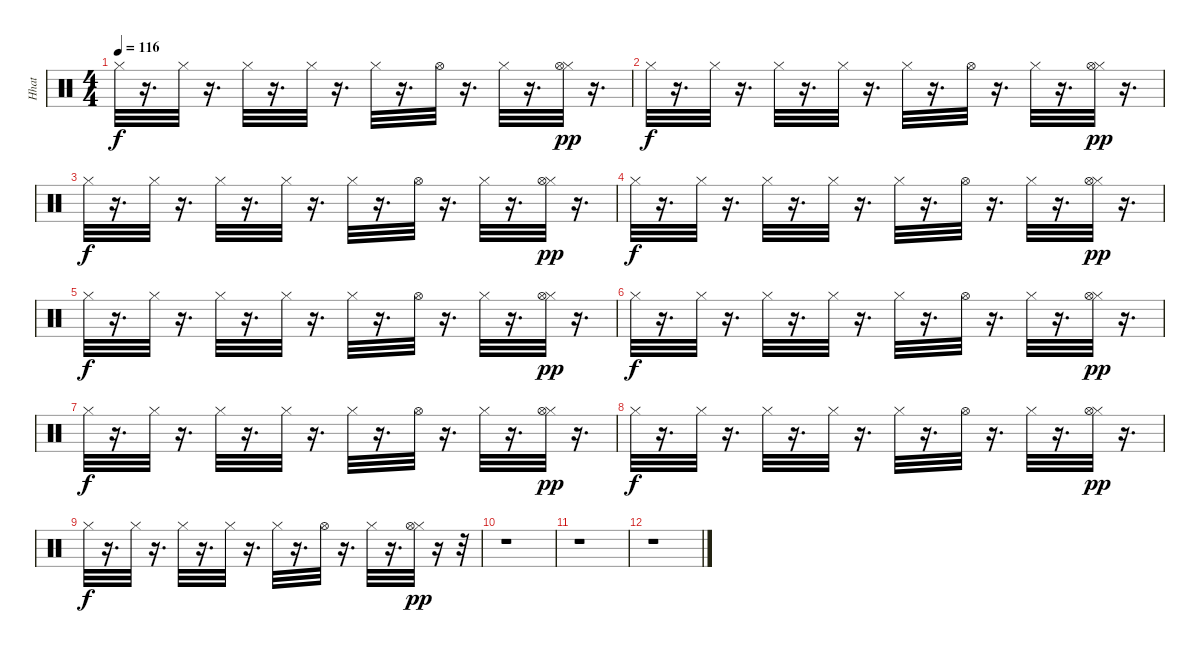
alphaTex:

\track ("Hhat" "Hhat") {instrument percussion}
\staff {score}
\articulation defaults
\ts (4 4)
\tempo 116
\clef neutral
\ks c "Hi-Hat (closed)".32{dy f}
r.16{d} "Hi-Hat (closed)".32 r.16{d} "Hi-Hat (closed)".32 r.16{d} "Hi-Hat (closed)".32 r.16{d} "Hi-Hat (closed)".32 r.16{d} "Hi-Hat (open)".32 r.16{d} "Hi-Hat (closed)".32 r.16{d} ("Hi-Hat (closed)" "Hi-Hat (open)").32{dy pp} r.16{d} |
"Hi-Hat (closed)".32{dy f} r.16{d} "Hi-Hat (closed)".32 r.16{d} "Hi-Hat (closed)".32 r.16{d} "Hi-Hat (closed)".32 r.16{d} "Hi-Hat (closed)".32 r.16{d} "Hi-Hat (open)".32 r.16{d} "Hi-Hat (closed)".32 r.16{d} ("Hi-Hat (closed)" "Hi-Hat (open)").32{dy pp} r.16{d} |
"Hi-Hat (closed)".32{dy f} r.16{d} "Hi-Hat (closed)".32 r.16{d} "Hi-Hat (closed)".32 r.16{d} "Hi-Hat (closed)".32 r.16{d} "Hi-Hat (closed)".32 r.16{d} "Hi-Hat (open)".32 r.16{d} "Hi-Hat (closed)".32 r.16{d} ("Hi-Hat (closed)" "Hi-Hat (open)").32{dy pp} r.16{d} |
"Hi-Hat (closed)".32{dy f} r.16{d} "Hi-Hat (closed)".32 r.16{d} "Hi-Hat (closed)".32 r.16{d} "Hi-Hat (closed)".32 r.16{d} "Hi-Hat (closed)".32 r.16{d} "Hi-Hat (open)".32 r.16{d} "Hi-Hat (closed)".32 r.16{d} ("Hi-Hat (closed)" "Hi-Hat (open)").32{dy pp} r.16{d} |
"Hi-Hat (closed)".32{dy f} r.16{d} "Hi-Hat (closed)".32 r.16{d} "Hi-Hat (closed)".32 r.16{d} "Hi-Hat (closed)".32 r.16{d} "Hi-Hat (closed)".32 r.16{d} "Hi-Hat (open)".32 r.16{d} "Hi-Hat (closed)".32 r.16{d} ("Hi-Hat (closed)" "Hi-Hat (open)").32{dy pp} r.16{d} |
"Hi-Hat (closed)".32{dy f} r.16{d} "Hi-Hat (closed)".32 r.16{d} "Hi-Hat (closed)".32 r.16{d} "Hi-Hat (closed)".32 r.16{d} "Hi-Hat (closed)".32 r.16{d} "Hi-Hat (open)".32 r.16{d} "Hi-Hat (closed)".32 r.16{d} ("Hi-Hat (closed)" "Hi-Hat (open)").32{dy pp} r.16{d} |
"Hi-Hat (closed)".32{dy f} r.16{d} "Hi-Hat (closed)".32 r.16{d} "Hi-Hat (closed)".32 r.16{d} "Hi-Hat (closed)".32 r.16{d} "Hi-Hat (closed)".32 r.16{d} "Hi-Hat (open)".32 r.16{d} "Hi-Hat (closed)".32 r.16{d} ("Hi-Hat (closed)" "Hi-Hat (open)").32{dy pp} r.16{d} |
"Hi-Hat (closed)".32{dy f} r.16{d} "Hi-Hat (closed)".32 r.16{d} "Hi-Hat (closed)".32 r.16{d} "Hi-Hat (closed)".32 r.16{d} "Hi-Hat (closed)".32 r.16{d} "Hi-Hat (open)".32 r.16{d} "Hi-Hat (closed)".32 r.16{d} ("Hi-Hat (closed)" "Hi-Hat (open)").32{dy pp} r.16{d} |
"Hi-Hat (closed)".32{dy f} r.16{d} "Hi-Hat (closed)".32 r.16{d} "Hi-Hat (closed)".32 r.16{d} "Hi-Hat (closed)".32 r.16{d} "Hi-Hat (closed)".32 r.16{d} "Hi-Hat (open)".32 r.16{d} "Hi-Hat (closed)".32 r.16{d} ("Hi-Hat (closed)" "Hi-Hat (open)").32{dy pp} r.16 r.32 |
r.1 |
r.1 |
r.1
